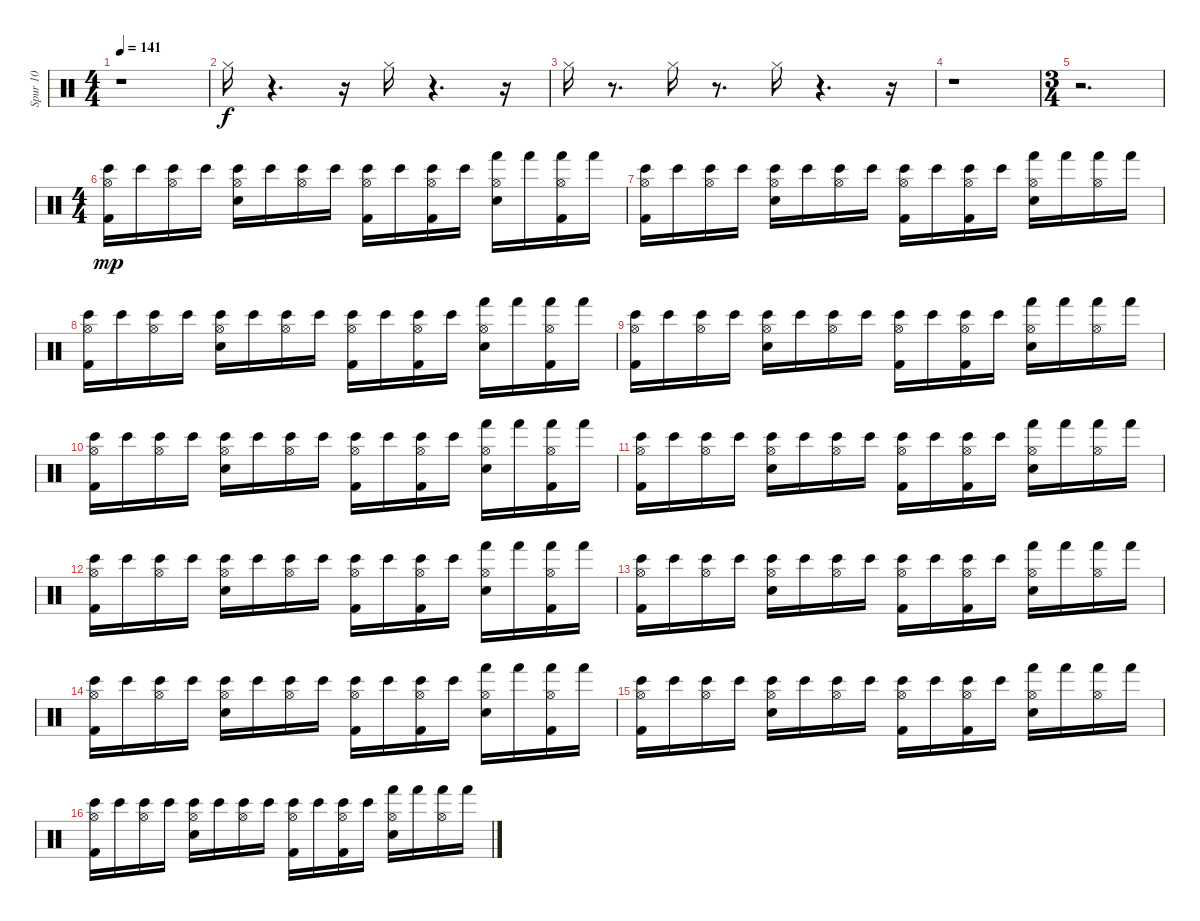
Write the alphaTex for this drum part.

\track ("Spur 10" "Spur 10") {instrument percussion}
\staff {score}
\articulation defaults
\ts (4 4)
\tempo 141
\clef neutral
\ks c
r.1{dy f} |
"Hi-Hat (closed)".16 r.4{d} r.16 "Hi-Hat (closed)".16 r.4{d} r.16 |
"Hi-Hat (closed)".16 r.8{d} "Hi-Hat (closed)".16 r.8{d} "Hi-Hat (closed)".16 r.4{d} r.16 |
r.1 |
\ts (3 4)
r.2{d} |
\ts (4 4)
("Bongo High (hit)" "Kick (hit) 2" "Hi-Hat (open)").16{dy mp} "Bongo High (hit)".16 ("Bongo High (hit)" "Hi-Hat (open)").16 "Bongo High (hit)".16 ("Bongo High (hit)" "Snare (hit) 2" "Hi-Hat (open)").16 "Bongo High (hit)".16 ("Bongo High (hit)" "Hi-Hat (open)").16 "Bongo High (hit)".16 ("Bongo High (hit)" "Kick (hit) 2" "Hi-Hat (open)").16 "Bongo High (hit)".16 ("Bongo High (hit)" "Kick (hit) 2" "Hi-Hat (open)").16 "Bongo High (hit)".16 ("Hand (hit)" "Snare (hit) 2" "Hi-Hat (open)").16 "Hand (hit)".16 ("Hand (hit)" "Kick (hit) 2" "Hi-Hat (open)").16 "Hand (hit)".16 |
("Bongo High (hit)" "Kick (hit) 2" "Hi-Hat (open)").16 "Bongo High (hit)".16 ("Bongo High (hit)" "Hi-Hat (open)").16 "Bongo High (hit)".16 ("Bongo High (hit)" "Snare (hit) 2" "Hi-Hat (open)").16 "Bongo High (hit)".16 ("Bongo High (hit)" "Hi-Hat (open)").16 "Bongo High (hit)".16 ("Bongo High (hit)" "Kick (hit) 2" "Hi-Hat (open)").16 "Bongo High (hit)".16 ("Bongo High (hit)" "Kick (hit) 2" "Hi-Hat (open)").16 "Bongo High (hit)".16 ("Hand (hit)" "Snare (hit) 2" "Hi-Hat (open)").16 "Hand (hit)".16 ("Hand (hit)" "Hi-Hat (open)").16 "Hand (hit)".16 |
("Bongo High (hit)" "Hi-Hat (open)" "Kick (hit) 2").16 "Bongo High (hit)".16 ("Bongo High (hit)" "Hi-Hat (open)").16 "Bongo High (hit)".16 ("Bongo High (hit)" "Hi-Hat (open)" "Snare (hit) 2").16 "Bongo High (hit)".16 ("Bongo High (hit)" "Hi-Hat (open)").16 "Bongo High (hit)".16 ("Bongo High (hit)" "Hi-Hat (open)" "Kick (hit) 2").16 "Bongo High (hit)".16 ("Bongo High (hit)" "Hi-Hat (open)" "Kick (hit) 2").16 "Bongo High (hit)".16 ("Hand (hit)" "Hi-Hat (open)" "Snare (hit) 2").16 "Hand (hit)".16 ("Hand (hit)" "Hi-Hat (open)" "Kick (hit) 2").16 "Hand (hit)".16 |
("Bongo High (hit)" "Hi-Hat (open)" "Kick (hit) 2").16 "Bongo High (hit)".16 ("Bongo High (hit)" "Hi-Hat (open)").16 "Bongo High (hit)".16 ("Bongo High (hit)" "Hi-Hat (open)" "Snare (hit) 2").16 "Bongo High (hit)".16 ("Bongo High (hit)" "Hi-Hat (open)").16 "Bongo High (hit)".16 ("Bongo High (hit)" "Hi-Hat (open)" "Kick (hit) 2").16 "Bongo High (hit)".16 ("Bongo High (hit)" "Hi-Hat (open)" "Kick (hit) 2").16 "Bongo High (hit)".16 ("Hand (hit)" "Hi-Hat (open)" "Snare (hit) 2").16 "Hand (hit)".16 ("Hand (hit)" "Hi-Hat (open)").16 "Hand (hit)".16 |
("Bongo High (hit)" "Hi-Hat (open)" "Kick (hit) 2").16 "Bongo High (hit)".16 ("Bongo High (hit)" "Hi-Hat (open)").16 "Bongo High (hit)".16 ("Bongo High (hit)" "Hi-Hat (open)" "Snare (hit) 2").16 "Bongo High (hit)".16 ("Bongo High (hit)" "Hi-Hat (open)").16 "Bongo High (hit)".16 ("Bongo High (hit)" "Hi-Hat (open)" "Kick (hit) 2").16 "Bongo High (hit)".16 ("Bongo High (hit)" "Hi-Hat (open)" "Kick (hit) 2").16 "Bongo High (hit)".16 ("Hand (hit)" "Hi-Hat (open)" "Snare (hit) 2").16 "Hand (hit)".16 ("Hand (hit)" "Hi-Hat (open)" "Kick (hit) 2").16 "Hand (hit)".16 |
("Bongo High (hit)" "Hi-Hat (open)" "Kick (hit) 2").16 "Bongo High (hit)".16 ("Bongo High (hit)" "Hi-Hat (open)").16 "Bongo High (hit)".16 ("Bongo High (hit)" "Hi-Hat (open)" "Snare (hit) 2").16 "Bongo High (hit)".16 ("Bongo High (hit)" "Hi-Hat (open)").16 "Bongo High (hit)".16 ("Bongo High (hit)" "Hi-Hat (open)" "Kick (hit) 2").16 "Bongo High (hit)".16 ("Bongo High (hit)" "Hi-Hat (open)" "Kick (hit) 2").16 "Bongo High (hit)".16 ("Hand (hit)" "Hi-Hat (open)" "Snare (hit) 2").16 "Hand (hit)".16 ("Hand (hit)" "Hi-Hat (open)").16 "Hand (hit)".16 |
("Bongo High (hit)" "Hi-Hat (open)" "Kick (hit) 2").16 "Bongo High (hit)".16 ("Bongo High (hit)" "Hi-Hat (open)").16 "Bongo High (hit)".16 ("Bongo High (hit)" "Hi-Hat (open)" "Snare (hit) 2").16 "Bongo High (hit)".16 ("Bongo High (hit)" "Hi-Hat (open)").16 "Bongo High (hit)".16 ("Bongo High (hit)" "Hi-Hat (open)" "Kick (hit) 2").16 "Bongo High (hit)".16 ("Bongo High (hit)" "Hi-Hat (open)" "Kick (hit) 2").16 "Bongo High (hit)".16 ("Hand (hit)" "Hi-Hat (open)" "Snare (hit) 2").16 "Hand (hit)".16 ("Hand (hit)" "Hi-Hat (open)" "Kick (hit) 2").16 "Hand (hit)".16 |
("Bongo High (hit)" "Hi-Hat (open)" "Kick (hit) 2").16 "Bongo High (hit)".16 ("Bongo High (hit)" "Hi-Hat (open)").16 "Bongo High (hit)".16 ("Bongo High (hit)" "Hi-Hat (open)" "Snare (hit) 2").16 "Bongo High (hit)".16 ("Bongo High (hit)" "Hi-Hat (open)").16 "Bongo High (hit)".16 ("Bongo High (hit)" "Hi-Hat (open)" "Kick (hit) 2").16 "Bongo High (hit)".16 ("Bongo High (hit)" "Hi-Hat (open)" "Kick (hit) 2").16 "Bongo High (hit)".16 ("Hand (hit)" "Hi-Hat (open)" "Snare (hit) 2").16 "Hand (hit)".16 ("Hand (hit)" "Hi-Hat (open)").16 "Hand (hit)".16 |
("Bongo High (hit)" "Hi-Hat (open)" "Kick (hit) 2").16 "Bongo High (hit)".16 ("Bongo High (hit)" "Hi-Hat (open)").16 "Bongo High (hit)".16 ("Bongo High (hit)" "Hi-Hat (open)" "Snare (hit) 2").16 "Bongo High (hit)".16 ("Bongo High (hit)" "Hi-Hat (open)").16 "Bongo High (hit)".16 ("Bongo High (hit)" "Hi-Hat (open)" "Kick (hit) 2").16 "Bongo High (hit)".16 ("Bongo High (hit)" "Hi-Hat (open)" "Kick (hit) 2").16 "Bongo High (hit)".16 ("Hand (hit)" "Hi-Hat (open)" "Snare (hit) 2").16 "Hand (hit)".16 ("Hand (hit)" "Hi-Hat (open)" "Kick (hit) 2").16 "Hand (hit)".16 |
("Bongo High (hit)" "Hi-Hat (open)" "Kick (hit) 2").16 "Bongo High (hit)".16 ("Bongo High (hit)" "Hi-Hat (open)").16 "Bongo High (hit)".16 ("Bongo High (hit)" "Hi-Hat (open)" "Snare (hit) 2").16 "Bongo High (hit)".16 ("Bongo High (hit)" "Hi-Hat (open)").16 "Bongo High (hit)".16 ("Bongo High (hit)" "Hi-Hat (open)" "Kick (hit) 2").16 "Bongo High (hit)".16 ("Bongo High (hit)" "Hi-Hat (open)" "Kick (hit) 2").16 "Bongo High (hit)".16 ("Hand (hit)" "Hi-Hat (open)" "Snare (hit) 2").16 "Hand (hit)".16 ("Hand (hit)" "Hi-Hat (open)").16 "Hand (hit)".16 |
("Bongo High (hit)" "Hi-Hat (open)" "Kick (hit) 2").16 "Bongo High (hit)".16 ("Bongo High (hit)" "Hi-Hat (open)").16 "Bongo High (hit)".16 ("Bongo High (hit)" "Hi-Hat (open)" "Snare (hit) 2").16 "Bongo High (hit)".16 ("Bongo High (hit)" "Hi-Hat (open)").16 "Bongo High (hit)".16 ("Bongo High (hit)" "Hi-Hat (open)" "Kick (hit) 2").16 "Bongo High (hit)".16 ("Bongo High (hit)" "Hi-Hat (open)" "Kick (hit) 2").16 "Bongo High (hit)".16 ("Hand (hit)" "Hi-Hat (open)" "Snare (hit) 2").16 "Hand (hit)".16 ("Hand (hit)" "Hi-Hat (open)").16 "Hand (hit)".16
